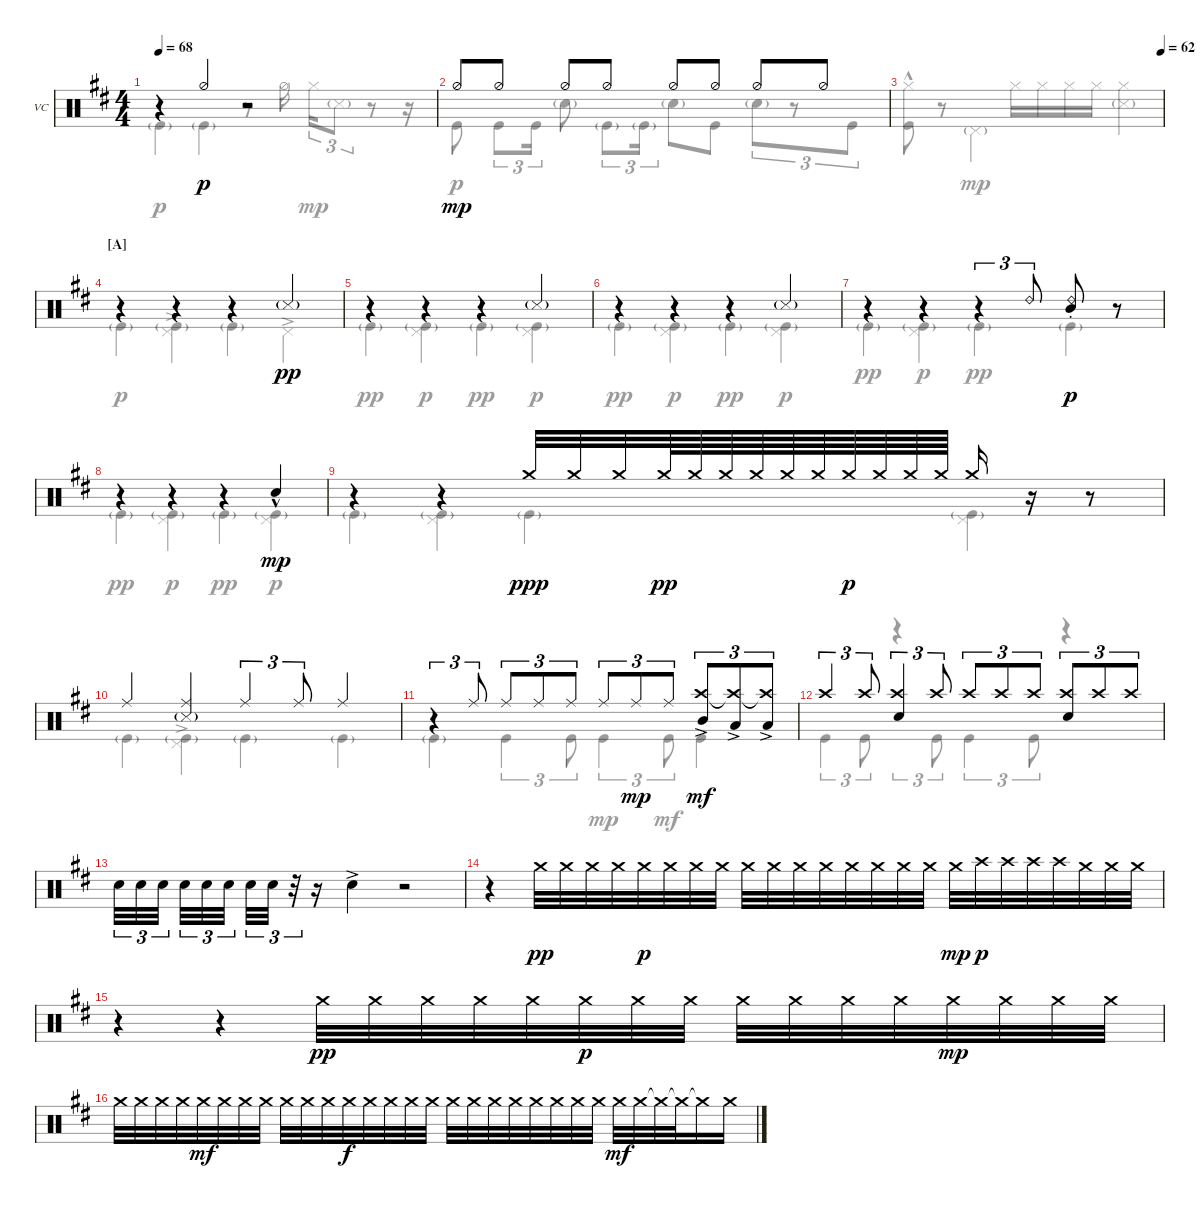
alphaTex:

\defaultSystemsLayout 4
\bracketExtendMode nobrackets
\firstSystemTrackNameOrientation horizontal
\otherSystemsTrackNameOrientation horizontal
\track ("Vinnie Colaiuta" "VC") {instrument percussion}
\staff {score}
\articulation defaults
\voice
\ts (4 4)
\tempo 68
\clef neutral
\ks bminor
r.4{dy p} "Hi-Hat (half)".4 r.2 |
"Hi-Hat (half)".8{dy mp} "Hi-Hat (half)".8 "Hi-Hat (half)".8 "Hi-Hat (half)".8 "Hi-Hat (half)".8 "Hi-Hat (half)".8 "Hi-Hat (half)".8 "Hi-Hat (half)".8 |
\tempo (62 0.994681)
|
\section ("A" "")
r.4 r.4 r.4 "Snare (side stick) 3"{g}.4{dy pp} |
r.4 r.4 r.4 "Snare (side stick) 3"{g}.4 |
r.4 r.4 r.4 "Snare (side stick) 3"{g}.4 |
r.4 r.4 r.4{tu (3 2)} "Ride (bell) 2".8{tu (3 2)} ("Mid Tom (hit)"{st} "Ride (bell) 2").8{dy p} r.8 |
\scale
0.323892 r.4 r.4 r.4 "Snare (hit) 2"{hac}.4{dy mp} |
\scale
0.676781 r.4 r.4 "Crash medium (hit)".32{dy ppp} "Crash medium (hit)".32 "Crash medium (hit)".32 "Crash medium (hit)".64{dy pp} "Crash medium (hit)".64 "Crash medium (hit)".64 "Crash medium (hit)".64 "Crash medium (hit)".64 "Crash medium (hit)".64 "Crash medium (hit)".64{dy p} "Crash medium (hit)".64 "Crash medium (hit)".64 "Crash medium (hit)".64 "Crash medium (hit)".16 r.16 r.8 |
"Ride (middle)".4 ("Ride (middle)" "Snare (side stick) 3"{g}).4 "Ride (middle)".4{tu (3 2)} "Ride (middle)".8{tu (3 2)} "Ride (middle)".4 |
r.4{tu (3 2)} "Ride (middle)".8{tu (3 2)} "Ride (middle)".8{tu (3 2)} "Ride (middle)".8{tu (3 2)} "Ride (middle)".8{tu (3 2)} "Ride (middle)".8{tu (3 2)} "Ride (middle)".8{tu (3 2) dy mp} "Ride (middle)".8{tu (3 2)} ("Mid Tom (hit)" "Crash high (hit)"{ac}).8{tu (3 2) dy mf} ("Low Tom (hit)"{ac} "Crash high (hit)"{t}).8{tu (3 2)} ("Low Tom (hit)"{ac} "Crash high (hit)"{t}).8{tu (3 2)} |
"Crash high (hit)".4{tu (3 2)} "Crash high (hit)".8{tu (3 2)} ("Crash high (hit)" "Snare (hit) 2").4{tu (3 2)} "Crash high (hit)".8{tu (3 2)} "Crash high (hit)".8{tu (3 2)} "Crash high (hit)".8{tu (3 2)} "Crash high (hit)".8{tu (3 2)} ("Crash high (hit)" "Snare (hit) 2").8{tu (3 2)} "Crash high (hit)".8{tu (3 2)} "Crash high (hit)".8{tu (3 2)} |
"Snare (hit) 2".32{tu (3 2)} "Snare (hit) 2".32{tu (3 2)} "Snare (hit) 2".32{tu (3 2)} "Snare (hit) 2".32{tu (3 2)} "Snare (hit) 2".32{tu (3 2)} "Snare (hit) 2".32{tu (3 2)} "Snare (hit) 2".32{tu (3 2)} "Snare (hit) 2".32{tu (3 2)} r.32{tu (3 2)} r.16 "Snare (hit) 2"{ac}.4 r.2 |
r.4 "Crash medium (hit)".32{dy pp} "Crash medium (hit)".32 "Crash medium (hit)".32 "Crash medium (hit)".32 "Crash medium (hit)".32{dy p} "Crash medium (hit)".32 "Crash medium (hit)".32 "Crash medium (hit)".32 "Crash medium (hit)".32 "Crash medium (hit)".32 "Crash medium (hit)".32 "Crash medium (hit)".32 "Crash medium (hit)".32 "Crash medium (hit)".32 "Crash medium (hit)".32 "Crash medium (hit)".32 "Crash medium (hit)".32{dy mp} "Crash high (hit)".32{dy p} "Crash high (hit)".32 "Crash high (hit)".32 "Crash high (hit)".32 "Crash medium (hit)".32 "Crash medium (hit)".32 "Crash medium (hit)".32 |
r.4 r.4 "Crash medium (hit)".32{dy pp} "Crash medium (hit)".32 "Crash medium (hit)".32 "Crash medium (hit)".32 "Crash medium (hit)".32 "Crash medium (hit)".32{dy p} "Crash medium (hit)".32 "Crash medium (hit)".32 "Crash medium (hit)".32 "Crash medium (hit)".32 "Crash medium (hit)".32 "Crash medium (hit)".32 "Crash medium (hit)".32{dy mp} "Crash medium (hit)".32 "Crash medium (hit)".32 "Crash medium (hit)".32 |
"Crash medium (hit)".32 "Crash medium (hit)".32 "Crash medium (hit)".32 "Crash medium (hit)".32 "Crash medium (hit)".32{dy mf} "Crash medium (hit)".32 "Crash medium (hit)".32 "Crash medium (hit)".32 "Crash medium (hit)".32 "Crash medium (hit)".32 "Crash medium (hit)".32 "Crash medium (hit)".32{dy f} "Crash medium (hit)".32 "Crash medium (hit)".32 "Crash medium (hit)".32 "Crash medium (hit)".32 "Crash medium (hit)".32 "Crash medium (hit)".32 "Crash medium (hit)".32 "Crash medium (hit)".32 "Crash medium (hit)".32 "Crash medium (hit)".32 "Crash medium (hit)".32 "Crash medium (hit)".32 "Crash medium (hit)".32{dy mf} "Crash medium (hit)".32 "Crash medium (hit)"{t}.32 "Crash medium (hit)"{t}.32 "Crash medium (hit)"{t}.16 "Crash medium (hit)".16
\voice
\clef neutral
\ottava regular
\simile none
\ks bminor "Kick (hit)"{g}.4{dy p} "Kick (hit)"{g}.4
r.8 "Hi-Hat (half)".16 "Hi-Hat (closed)".16{tu (3 2) dy mp} "Snare (side stick) 3"{g}.8{tu (3 2)} r.8 r.16 |
"Kick (hit)".8{dy p} "Kick (hit)".8{tu (3 2)} "Kick (hit)".16{tu (3 2)} "Snare (hit) 2"{g}.8 "Kick (hit)"{g}.8{tu (3 2)} "Kick (hit)"{g}.16{tu (3 2)} "Snare (hit) 2"{g}.8 "Kick (hit)".8 "Snare (hit) 2"{g}.8{tu (3 2)} r.8{tu (3 2)} "Kick (hit)".8{tu (3 2)} |
("Kick (hit)" "Hi-Hat (closed)"{hac}).8 r.8 "Pedal Hi-Hat (hit)"{g}.4{dy mp} "Hi-Hat (closed)".16 "Hi-Hat (closed)".16 "Hi-Hat (closed)".16 "Hi-Hat (closed)".16 ("Hi-Hat (closed)" "Snare (side stick) 3"{g}).4 |
"Kick (hit)"{g}.4{dy p} ("Pedal Hi-Hat (hit)"{ac} "Kick (hit)"{g}).4 "Kick (hit)"{g}.4 "Pedal Hi-Hat (hit)"{ac}.4 |
"Kick (hit)"{g}.4{dy pp} ("Pedal Hi-Hat (hit)" "Kick (hit)"{g}).4{dy p} "Kick (hit)"{g}.4{dy pp} ("Kick (hit)"{g} "Pedal Hi-Hat (hit)").4{dy p} |
"Kick (hit)"{g}.4{dy pp} ("Pedal Hi-Hat (hit)" "Kick (hit)"{g}).4{dy p} "Kick (hit)"{g}.4{dy pp} ("Kick (hit)"{g} "Pedal Hi-Hat (hit)").4{dy p} |
"Kick (hit)"{g}.4{dy pp} ("Pedal Hi-Hat (hit)" "Kick (hit)"{g}).4{dy p} "Kick (hit)"{g}.4{dy pp} "Kick (hit)"{g}.4{dy p} |
"Kick (hit)"{g}.4{dy pp} ("Pedal Hi-Hat (hit)" "Kick (hit)"{g}).4{dy p} "Kick (hit)"{g}.4{dy pp} ("Kick (hit)"{g} "Pedal Hi-Hat (hit)").4{dy p} |
"Kick (hit)"{g}.4 ("Pedal Hi-Hat (hit)" "Kick (hit)"{g}).4 "Kick (hit)"{g}.4 ("Kick (hit)"{g} "Pedal Hi-Hat (hit)").4 |
"Kick (hit)"{g}.4 ("Kick (hit)"{g} "Pedal Hi-Hat (hit)"{ac}).4 "Kick (hit)"{g}.4 "Kick (hit)"{g}.4 |
"Kick (hit)"{g}.4 "Kick (hit)".4{tu (3 2)} "Kick (hit)".8{tu (3 2)} "Kick (hit)".4{tu (3 2) dy mp} "Kick (hit)".8{tu (3 2) dy mf} "Kick (hit)".4 |
"Kick (hit)".4{tu (3 2)} "Kick (hit)".8{tu (3 2)} r.4{tu (3 2)} "Kick (hit)".8{tu (3 2)} "Kick (hit)".4{tu (3 2)} "Kick (hit)".8{tu (3 2)} r.4 |
|
|
|
